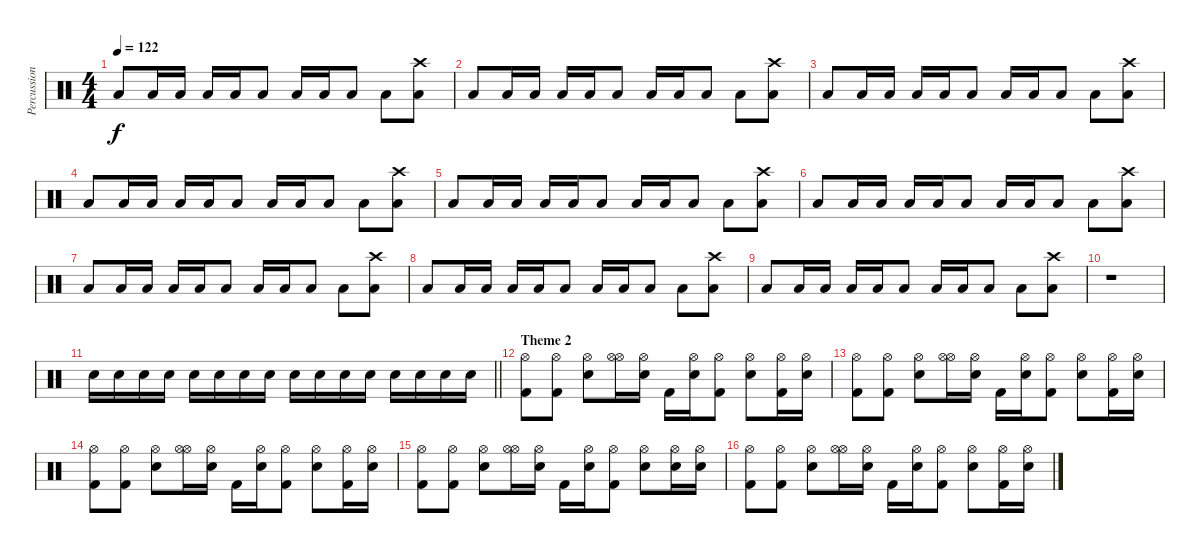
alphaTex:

\track ("Percussion" "Percussion") {instrument percussion}
\staff {score}
\articulation defaults
\ts (4 4)
\tempo 122
\clef neutral
\ks c "Low Tom (hit)".8{dy f} "Low Tom (hit)".16 "Low Tom (hit)".16 "Low Tom (hit)".16 "Low Tom (hit)".16 "Low Tom (hit)".8 "Low Tom (hit)".16 "Low Tom (hit)".16 "Low Tom (hit)".8 "Low Tom (hit)".8
("Low Tom (hit)" "Crash high (hit)").8 |
"Low Tom (hit)".8 "Low Tom (hit)".16 "Low Tom (hit)".16 "Low Tom (hit)".16 "Low Tom (hit)".16 "Low Tom (hit)".8 "Low Tom (hit)".16 "Low Tom (hit)".16 "Low Tom (hit)".8 "Low Tom (hit)".8 ("Low Tom (hit)" "Crash high (hit)").8 |
"Low Tom (hit)".8 "Low Tom (hit)".16 "Low Tom (hit)".16 "Low Tom (hit)".16 "Low Tom (hit)".16 "Low Tom (hit)".8 "Low Tom (hit)".16 "Low Tom (hit)".16 "Low Tom (hit)".8 "Low Tom (hit)".8 ("Low Tom (hit)" "Crash high (hit)").8 |
"Low Tom (hit)".8 "Low Tom (hit)".16 "Low Tom (hit)".16 "Low Tom (hit)".16 "Low Tom (hit)".16 "Low Tom (hit)".8 "Low Tom (hit)".16 "Low Tom (hit)".16 "Low Tom (hit)".8 "Low Tom (hit)".8 ("Low Tom (hit)" "Crash high (hit)").8 |
"Low Tom (hit)".8 "Low Tom (hit)".16 "Low Tom (hit)".16 "Low Tom (hit)".16 "Low Tom (hit)".16 "Low Tom (hit)".8 "Low Tom (hit)".16 "Low Tom (hit)".16 "Low Tom (hit)".8 "Low Tom (hit)".8 ("Low Tom (hit)" "Crash high (hit)").8 |
"Low Tom (hit)".8 "Low Tom (hit)".16 "Low Tom (hit)".16 "Low Tom (hit)".16 "Low Tom (hit)".16 "Low Tom (hit)".8 "Low Tom (hit)".16 "Low Tom (hit)".16 "Low Tom (hit)".8 "Low Tom (hit)".8 ("Low Tom (hit)" "Crash high (hit)").8 |
"Low Tom (hit)".8 "Low Tom (hit)".16 "Low Tom (hit)".16 "Low Tom (hit)".16 "Low Tom (hit)".16 "Low Tom (hit)".8 "Low Tom (hit)".16 "Low Tom (hit)".16 "Low Tom (hit)".8 "Low Tom (hit)".8 ("Low Tom (hit)" "Crash high (hit)").8 |
"Low Tom (hit)".8 "Low Tom (hit)".16 "Low Tom (hit)".16 "Low Tom (hit)".16 "Low Tom (hit)".16 "Low Tom (hit)".8 "Low Tom (hit)".16 "Low Tom (hit)".16 "Low Tom (hit)".8 "Low Tom (hit)".8 ("Low Tom (hit)" "Crash high (hit)").8 |
"Low Tom (hit)".8 "Low Tom (hit)".16 "Low Tom (hit)".16 "Low Tom (hit)".16 "Low Tom (hit)".16 "Low Tom (hit)".8 "Low Tom (hit)".16 "Low Tom (hit)".16 "Low Tom (hit)".8 "Low Tom (hit)".8 ("Low Tom (hit)" "Crash high (hit)").8 |
r.1 |
\barLineRight lightlight "Electric Snare (hit)".16 "Electric Snare (hit)".16 "Electric Snare (hit)".16 "Electric Snare (hit)".16 "Electric Snare (hit)".16 "Electric Snare (hit)".16 "Electric Snare (hit)".16 "Electric Snare (hit)".16 "Electric Snare (hit)".16 "Electric Snare (hit)".16 "Electric Snare (hit)".16 "Electric Snare (hit)".16 "Electric Snare (hit)".16 "Electric Snare (hit)".16 "Electric Snare (hit)".16 "Electric Snare (hit)".16
|
\section ("" "Theme 2")
("Hi-Hat (open)" "Kick (hit) 2").8 ("Hi-Hat (open)" "Kick (hit) 2").8 ("Hi-Hat (open)" "Electric Snare (hit)").8 ("Hi-Hat (open)" "Hi-Hat (open)").16 ("Hi-Hat (open)" "Electric Snare (hit)").16 "Kick (hit) 2".16 ("Hi-Hat (open)" "Electric Snare (hit)").16 ("Hi-Hat (open)" "Kick (hit) 2").8 ("Hi-Hat (open)" "Electric Snare (hit)").8 ("Hi-Hat (open)" "Kick (hit) 2").16 ("Hi-Hat (open)" "Electric Snare (hit)").16 |
("Hi-Hat (open)" "Kick (hit) 2").8 ("Hi-Hat (open)" "Kick (hit) 2").8 ("Hi-Hat (open)" "Electric Snare (hit)").8 ("Hi-Hat (open)" "Hi-Hat (open)").16 ("Hi-Hat (open)" "Electric Snare (hit)").16 "Kick (hit) 2".16 ("Hi-Hat (open)" "Electric Snare (hit)").16 ("Hi-Hat (open)" "Kick (hit) 2").8 ("Hi-Hat (open)" "Electric Snare (hit)").8 ("Hi-Hat (open)" "Kick (hit) 2").16 ("Hi-Hat (open)" "Electric Snare (hit)").16 |
("Hi-Hat (open)" "Kick (hit) 2").8 ("Hi-Hat (open)" "Kick (hit) 2").8 ("Hi-Hat (open)" "Electric Snare (hit)").8 ("Hi-Hat (open)" "Hi-Hat (open)").16 ("Hi-Hat (open)" "Electric Snare (hit)").16 "Kick (hit) 2".16 ("Hi-Hat (open)" "Electric Snare (hit)").16 ("Hi-Hat (open)" "Kick (hit) 2").8 ("Hi-Hat (open)" "Electric Snare (hit)").8 ("Hi-Hat (open)" "Kick (hit) 2").16 ("Hi-Hat (open)" "Electric Snare (hit)").16 |
("Hi-Hat (open)" "Kick (hit) 2").8 ("Hi-Hat (open)" "Kick (hit) 2").8 ("Hi-Hat (open)" "Electric Snare (hit)").8 ("Hi-Hat (open)" "Hi-Hat (open)").16 ("Hi-Hat (open)" "Electric Snare (hit)").16 "Kick (hit) 2".16 ("Hi-Hat (open)" "Electric Snare (hit)").16 ("Hi-Hat (open)" "Kick (hit) 2").8 ("Hi-Hat (open)" "Electric Snare (hit)").8 ("Hi-Hat (open)" "Electric Snare (hit)").16 ("Hi-Hat (open)" "Electric Snare (hit)").16 |
("Hi-Hat (open)" "Kick (hit) 2").8 ("Hi-Hat (open)" "Kick (hit) 2").8 ("Hi-Hat (open)" "Electric Snare (hit)").8 ("Hi-Hat (open)" "Hi-Hat (open)").16 ("Hi-Hat (open)" "Electric Snare (hit)").16 "Kick (hit) 2".16 ("Hi-Hat (open)" "Electric Snare (hit)").16 ("Hi-Hat (open)" "Kick (hit) 2").8 ("Hi-Hat (open)" "Electric Snare (hit)").8 ("Hi-Hat (open)" "Kick (hit) 2").16 ("Hi-Hat (open)" "Electric Snare (hit)").16
